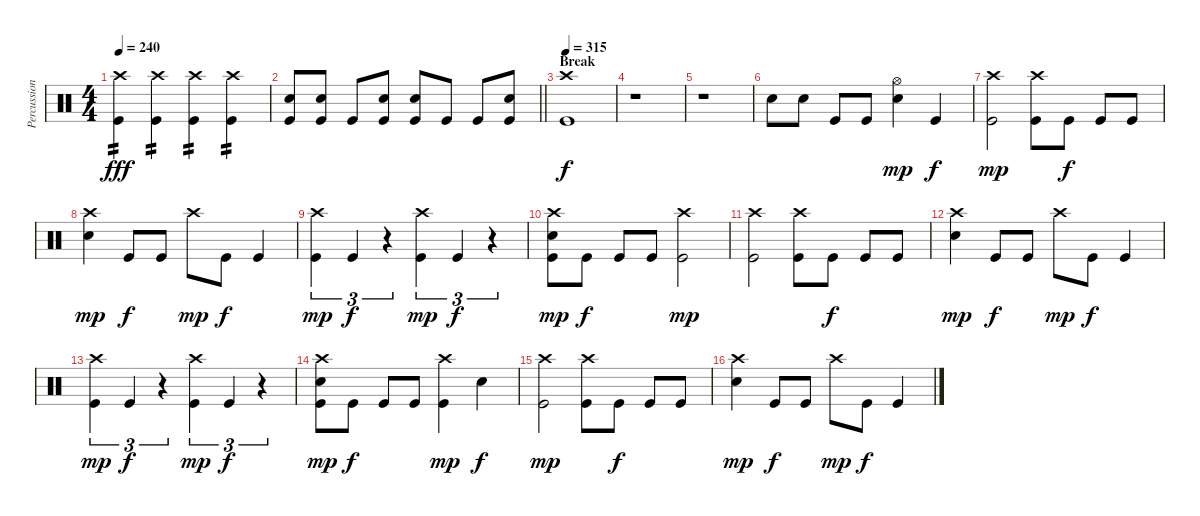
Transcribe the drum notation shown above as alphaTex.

\track ("Percussion" "Percussion") {instrument percussion}
\staff {score}
\articulation defaults
\ts (4 4)
\tempo 240
\clef neutral
\ks c
("Crash high (hit)" "Kick (hit)").4{tp 2 dy fff} ("Crash high (hit)" "Kick (hit)").4{tp 2} ("Crash high (hit)" "Kick (hit)").4{tp 2} ("Crash high (hit)" "Kick (hit)").4{tp 2} |
\barLineRight lightlight
("Electric Snare (hit)" "Kick (hit)").8 ("Electric Snare (hit)" "Kick (hit)").8 "Kick (hit)".8 ("Electric Snare (hit)" "Kick (hit)").8 ("Electric Snare (hit)" "Kick (hit)").8 "Kick (hit)".8 "Kick (hit)".8 ("Electric Snare (hit)" "Kick (hit)").8 |
\section ("" "Break")
\tempo 295
\tempo 315
("Crash high (hit)" "Kick (hit)").1{dy f} |
r.1 |
r.1 |
"Electric Snare (hit)".8 "Electric Snare (hit)".8 "Kick (hit)".8 "Kick (hit)".8 ("Hi-Hat (open)" "Electric Snare (hit)").4{dy mp} "Kick (hit)".4{dy f} |
("Crash high (hit)" "Kick (hit)").2{dy mp} ("Crash high (hit)" "Kick (hit)").8 "Kick (hit)".8{dy f} "Kick (hit)".8 "Kick (hit)".8 |
("Crash high (hit)" "Electric Snare (hit)").4{dy mp} "Kick (hit)".8{dy f} "Kick (hit)".8 "Crash high (hit)".8{dy mp} "Kick (hit)".8{dy f} "Kick (hit)".4 |
("Crash high (hit)" "Kick (hit)").4{tu (3 2) dy mp} "Kick (hit)".4{tu (3 2) dy f} r.4{tu (3 2)} ("Crash high (hit)" "Kick (hit)").4{tu (3 2) dy mp} "Kick (hit)".4{tu (3 2) dy f} r.4{tu (3 2)} |
("Crash high (hit)" "Electric Snare (hit)" "Kick (hit)").8{dy mp} "Kick (hit)".8{dy f} "Kick (hit)".8 "Kick (hit)".8 ("Crash high (hit)" "Kick (hit)").2{dy mp} |
("Crash high (hit)" "Kick (hit)").2 ("Crash high (hit)" "Kick (hit)").8 "Kick (hit)".8{dy f} "Kick (hit)".8 "Kick (hit)".8 |
("Crash high (hit)" "Electric Snare (hit)").4{dy mp} "Kick (hit)".8{dy f} "Kick (hit)".8 "Crash high (hit)".8{dy mp} "Kick (hit)".8{dy f} "Kick (hit)".4 |
("Crash high (hit)" "Kick (hit)").4{tu (3 2) dy mp} "Kick (hit)".4{tu (3 2) dy f} r.4{tu (3 2)} ("Crash high (hit)" "Kick (hit)").4{tu (3 2) dy mp} "Kick (hit)".4{tu (3 2) dy f} r.4{tu (3 2)} |
("Crash high (hit)" "Electric Snare (hit)" "Kick (hit)").8{dy mp} "Kick (hit)".8{dy f} "Kick (hit)".8 "Kick (hit)".8 ("Crash high (hit)" "Kick (hit)").4{dy mp} "Electric Snare (hit)".4{dy f} |
("Crash high (hit)" "Kick (hit)").2{dy mp} ("Crash high (hit)" "Kick (hit)").8 "Kick (hit)".8{dy f} "Kick (hit)".8 "Kick (hit)".8 |
("Crash high (hit)" "Electric Snare (hit)").4{dy mp} "Kick (hit)".8{dy f} "Kick (hit)".8 "Crash high (hit)".8{dy mp} "Kick (hit)".8{dy f} "Kick (hit)".4
